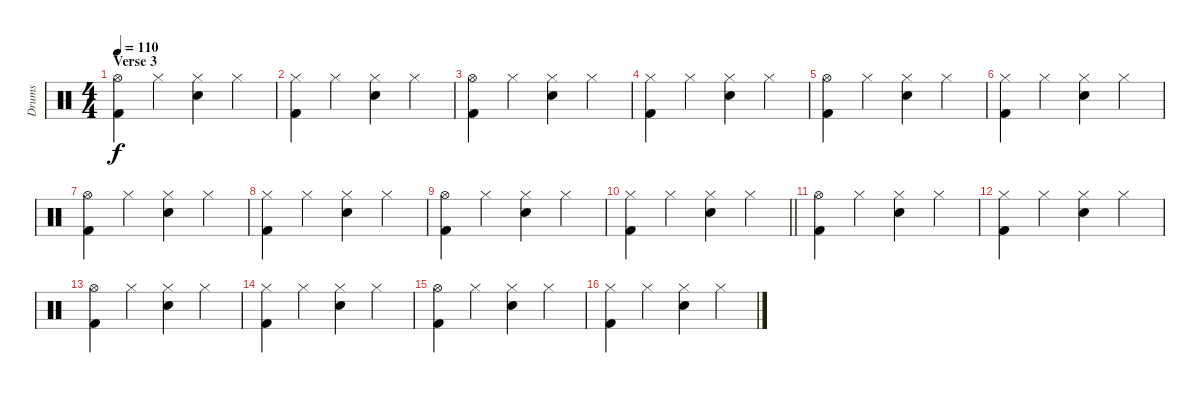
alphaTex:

\track ("Drums" "Drums") {instrument percussion}
\staff {score}
\articulation defaults
\ts (4 4)
\section ("" "Verse 3")
\tempo 110
\clef neutral
\ks c
("Kick (hit) 2" "Hi-Hat (open)").4{dy f} "Hi-Hat (closed)".4 ("Electric Snare (hit)" "Hi-Hat (closed)").4 "Hi-Hat (closed)".4 |
("Kick (hit) 2" "Hi-Hat (closed)").4 "Hi-Hat (closed)".4 ("Electric Snare (hit)" "Hi-Hat (closed)").4 "Hi-Hat (closed)".4 |
("Kick (hit) 2" "Hi-Hat (open)").4 "Hi-Hat (closed)".4 ("Electric Snare (hit)" "Hi-Hat (closed)").4 "Hi-Hat (closed)".4 |
("Kick (hit) 2" "Hi-Hat (closed)").4 "Hi-Hat (closed)".4 ("Electric Snare (hit)" "Hi-Hat (closed)").4 "Hi-Hat (closed)".4 |
("Kick (hit) 2" "Hi-Hat (open)").4 "Hi-Hat (closed)".4 ("Electric Snare (hit)" "Hi-Hat (closed)").4 "Hi-Hat (closed)".4 |
("Kick (hit) 2" "Hi-Hat (closed)").4 "Hi-Hat (closed)".4 ("Electric Snare (hit)" "Hi-Hat (closed)").4 "Hi-Hat (closed)".4 |
("Kick (hit) 2" "Hi-Hat (open)").4 "Hi-Hat (closed)".4 ("Electric Snare (hit)" "Hi-Hat (closed)").4 "Hi-Hat (closed)".4 |
("Kick (hit) 2" "Hi-Hat (closed)").4 "Hi-Hat (closed)".4 ("Electric Snare (hit)" "Hi-Hat (closed)").4 "Hi-Hat (closed)".4 |
("Kick (hit) 2" "Hi-Hat (open)").4 "Hi-Hat (closed)".4 ("Electric Snare (hit)" "Hi-Hat (closed)").4 "Hi-Hat (closed)".4 |
\barLineRight lightlight
("Kick (hit) 2" "Hi-Hat (closed)").4 "Hi-Hat (closed)".4 ("Electric Snare (hit)" "Hi-Hat (closed)").4 "Hi-Hat (closed)".4 |
("Kick (hit) 2" "Hi-Hat (open)").4 "Hi-Hat (closed)".4 ("Electric Snare (hit)" "Hi-Hat (closed)").4 "Hi-Hat (closed)".4 |
("Kick (hit) 2" "Hi-Hat (closed)").4 "Hi-Hat (closed)".4 ("Electric Snare (hit)" "Hi-Hat (closed)").4 "Hi-Hat (closed)".4 |
("Kick (hit) 2" "Hi-Hat (open)").4 "Hi-Hat (closed)".4 ("Electric Snare (hit)" "Hi-Hat (closed)").4 "Hi-Hat (closed)".4 |
("Kick (hit) 2" "Hi-Hat (closed)").4 "Hi-Hat (closed)".4 ("Electric Snare (hit)" "Hi-Hat (closed)").4 "Hi-Hat (closed)".4 |
("Kick (hit) 2" "Hi-Hat (open)").4 "Hi-Hat (closed)".4 ("Electric Snare (hit)" "Hi-Hat (closed)").4 "Hi-Hat (closed)".4 |
("Kick (hit) 2" "Hi-Hat (closed)").4 "Hi-Hat (closed)".4 ("Electric Snare (hit)" "Hi-Hat (closed)").4 "Hi-Hat (closed)".4
